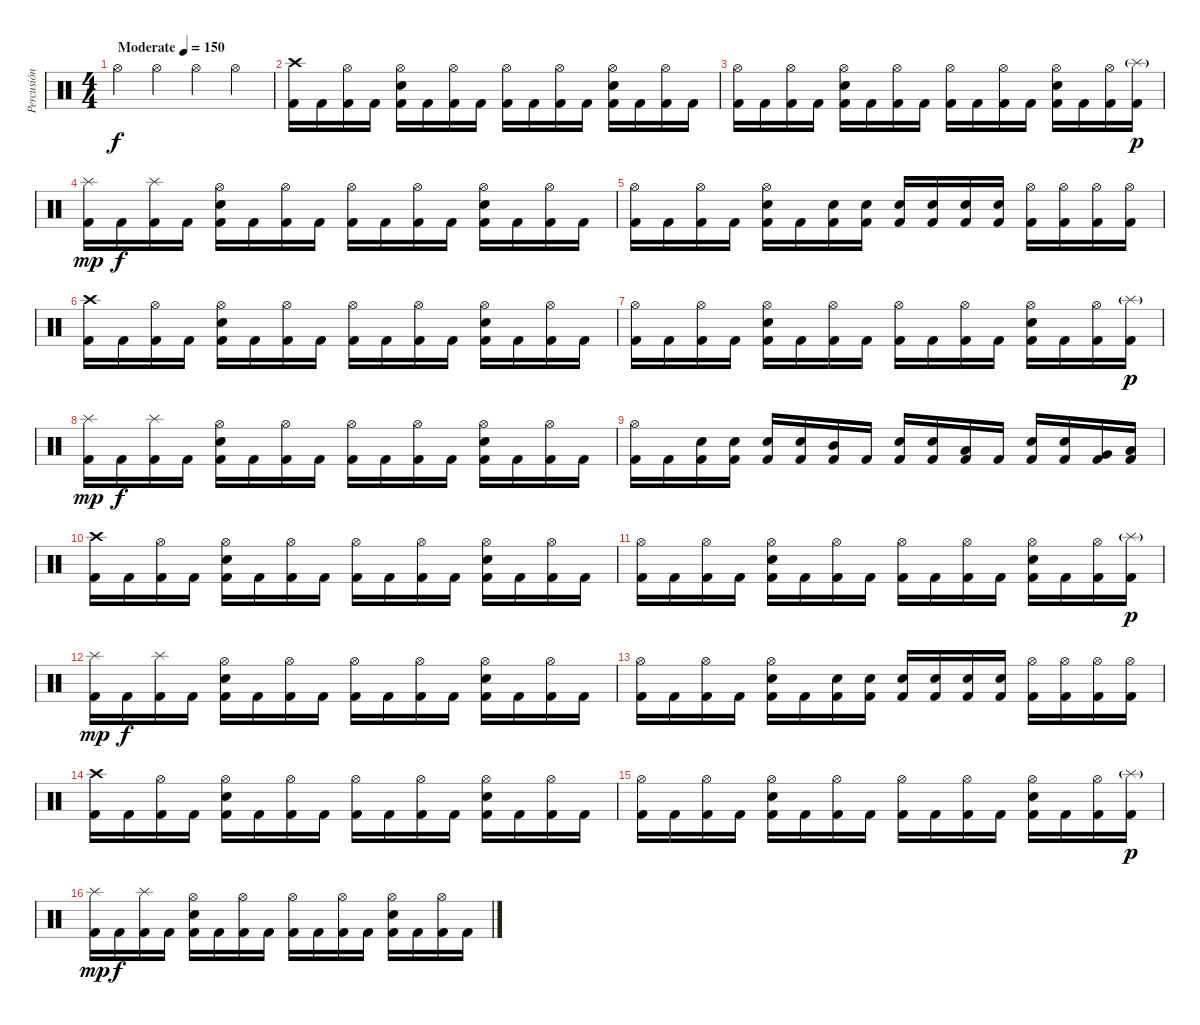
\track ("Percusión" "Percusión") {instrument percussion}
\staff {score}
\articulation defaults
\ts (4 4)
\tempo (150 "Moderate")
\clef neutral
\ks c "Hi-Hat (open)".4{dy f} "Hi-Hat (open)".4 "Hi-Hat (open)".4 "Hi-Hat (open)".4
|
("Crash high (hit)" "Kick (hit) 2").16 "Kick (hit) 2".16 ("Hi-Hat (open)" "Kick (hit) 2").16 "Kick (hit) 2".16 ("Hi-Hat (open)" "Snare (hit) 2" "Kick (hit) 2").16 "Kick (hit) 2".16 ("Hi-Hat (open)" "Kick (hit) 2").16 "Kick (hit) 2".16 ("Hi-Hat (open)" "Kick (hit) 2").16 "Kick (hit) 2".16 ("Hi-Hat (open)" "Kick (hit) 2").16 "Kick (hit) 2".16 ("Hi-Hat (open)" "Snare (hit) 2" "Kick (hit) 2").16 "Kick (hit) 2".16 ("Hi-Hat (open)" "Kick (hit) 2").16 "Kick (hit) 2".16 |
("Hi-Hat (open)" "Kick (hit) 2").16 "Kick (hit) 2".16 ("Hi-Hat (open)" "Kick (hit) 2").16 "Kick (hit) 2".16 ("Hi-Hat (open)" "Snare (hit) 2" "Kick (hit) 2").16 "Kick (hit) 2".16 ("Hi-Hat (open)" "Kick (hit) 2").16 "Kick (hit) 2".16 ("Hi-Hat (open)" "Kick (hit) 2").16 "Kick (hit) 2".16 ("Hi-Hat (open)" "Kick (hit) 2").16 "Kick (hit) 2".16 ("Hi-Hat (open)" "Snare (hit) 2" "Kick (hit) 2").16 "Kick (hit) 2".16 ("Hi-Hat (open)" "Kick (hit) 2").16 ("Splash (hit)"{g} "Kick (hit) 2").16{dy p} |
("Splash (hit)" "Kick (hit) 2").16{dy mp} "Kick (hit) 2".16{dy f} ("Splash (hit)" "Kick (hit) 2").16 "Kick (hit) 2".16 ("Hi-Hat (open)" "Snare (hit) 2" "Kick (hit) 2").16 "Kick (hit) 2".16 ("Hi-Hat (open)" "Kick (hit) 2").16 "Kick (hit) 2".16 ("Hi-Hat (open)" "Kick (hit) 2").16 "Kick (hit) 2".16 ("Hi-Hat (open)" "Kick (hit) 2").16 "Kick (hit) 2".16 ("Hi-Hat (open)" "Snare (hit) 2" "Kick (hit) 2").16 "Kick (hit) 2".16 ("Hi-Hat (open)" "Kick (hit) 2").16 "Kick (hit) 2".16 |
("Hi-Hat (open)" "Kick (hit) 2").16 "Kick (hit) 2".16 ("Hi-Hat (open)" "Kick (hit) 2").16 "Kick (hit) 2".16 ("Hi-Hat (open)" "Snare (hit) 2" "Kick (hit) 2").16 "Kick (hit) 2".16 ("Snare (hit) 2" "Kick (hit) 2").16 ("Snare (hit) 2" "Kick (hit) 2").16 ("Snare (hit) 2" "Kick (hit) 2").16 ("Snare (hit) 2" "Kick (hit) 2").16 ("Snare (hit) 2" "Kick (hit) 2").16 ("Snare (hit) 2" "Kick (hit) 2").16 ("Hi-Hat (open)" "Kick (hit) 2").16 ("Hi-Hat (open)" "Kick (hit) 2").16 ("Hi-Hat (open)" "Kick (hit) 2").16 ("Hi-Hat (open)" "Kick (hit) 2").16 |
("Crash high (hit)" "Kick (hit) 2").16 "Kick (hit) 2".16 ("Hi-Hat (open)" "Kick (hit) 2").16 "Kick (hit) 2".16 ("Hi-Hat (open)" "Snare (hit) 2" "Kick (hit) 2").16 "Kick (hit) 2".16 ("Hi-Hat (open)" "Kick (hit) 2").16 "Kick (hit) 2".16 ("Hi-Hat (open)" "Kick (hit) 2").16 "Kick (hit) 2".16 ("Hi-Hat (open)" "Kick (hit) 2").16 "Kick (hit) 2".16 ("Hi-Hat (open)" "Snare (hit) 2" "Kick (hit) 2").16 "Kick (hit) 2".16 ("Hi-Hat (open)" "Kick (hit) 2").16 "Kick (hit) 2".16 |
("Hi-Hat (open)" "Kick (hit) 2").16 "Kick (hit) 2".16 ("Hi-Hat (open)" "Kick (hit) 2").16 "Kick (hit) 2".16 ("Hi-Hat (open)" "Snare (hit) 2" "Kick (hit) 2").16 "Kick (hit) 2".16 ("Hi-Hat (open)" "Kick (hit) 2").16 "Kick (hit) 2".16 ("Hi-Hat (open)" "Kick (hit) 2").16 "Kick (hit) 2".16 ("Hi-Hat (open)" "Kick (hit) 2").16 "Kick (hit) 2".16 ("Hi-Hat (open)" "Snare (hit) 2" "Kick (hit) 2").16 "Kick (hit) 2".16 ("Hi-Hat (open)" "Kick (hit) 2").16 ("Splash (hit)"{g} "Kick (hit) 2").16{dy p} |
("Splash (hit)" "Kick (hit) 2").16{dy mp} "Kick (hit) 2".16{dy f} ("Splash (hit)" "Kick (hit) 2").16 "Kick (hit) 2".16 ("Hi-Hat (open)" "Snare (hit) 2" "Kick (hit) 2").16 "Kick (hit) 2".16 ("Hi-Hat (open)" "Kick (hit) 2").16 "Kick (hit) 2".16 ("Hi-Hat (open)" "Kick (hit) 2").16 "Kick (hit) 2".16 ("Hi-Hat (open)" "Kick (hit) 2").16 "Kick (hit) 2".16 ("Hi-Hat (open)" "Snare (hit) 2" "Kick (hit) 2").16 "Kick (hit) 2".16 ("Hi-Hat (open)" "Kick (hit) 2").16 "Kick (hit) 2".16 |
("Hi-Hat (open)" "Kick (hit) 2").16 "Kick (hit) 2".16 ("Snare (hit) 2" "Kick (hit) 2").16 ("Snare (hit) 2" "Kick (hit) 2").16 ("Snare (hit) 2" "Kick (hit) 2").16 ("Snare (hit) 2" "Kick (hit) 2").16 ("Mid Tom (hit)" "Kick (hit) 2").16 "Kick (hit) 2".16 ("Snare (hit) 2" "Kick (hit) 2").16 ("Snare (hit) 2" "Kick (hit) 2").16 ("Low Tom (hit)" "Kick (hit) 2").16 "Kick (hit) 2".16 ("Snare (hit) 2" "Kick (hit) 2").16 ("Snare (hit) 2" "Kick (hit) 2").16 ("Very Low Tom (hit)" "Kick (hit) 2").16 ("Low Floor Tom (hit)" "Kick (hit) 2").16 |
("Crash high (hit)" "Kick (hit) 2").16 "Kick (hit) 2".16 ("Hi-Hat (open)" "Kick (hit) 2").16 "Kick (hit) 2".16 ("Hi-Hat (open)" "Snare (hit) 2" "Kick (hit) 2").16 "Kick (hit) 2".16 ("Hi-Hat (open)" "Kick (hit) 2").16 "Kick (hit) 2".16 ("Hi-Hat (open)" "Kick (hit) 2").16 "Kick (hit) 2".16 ("Hi-Hat (open)" "Kick (hit) 2").16 "Kick (hit) 2".16 ("Hi-Hat (open)" "Snare (hit) 2" "Kick (hit) 2").16 "Kick (hit) 2".16 ("Hi-Hat (open)" "Kick (hit) 2").16 "Kick (hit) 2".16 |
("Hi-Hat (open)" "Kick (hit) 2").16 "Kick (hit) 2".16 ("Hi-Hat (open)" "Kick (hit) 2").16 "Kick (hit) 2".16 ("Hi-Hat (open)" "Snare (hit) 2" "Kick (hit) 2").16 "Kick (hit) 2".16 ("Hi-Hat (open)" "Kick (hit) 2").16 "Kick (hit) 2".16 ("Hi-Hat (open)" "Kick (hit) 2").16 "Kick (hit) 2".16 ("Hi-Hat (open)" "Kick (hit) 2").16 "Kick (hit) 2".16 ("Hi-Hat (open)" "Snare (hit) 2" "Kick (hit) 2").16 "Kick (hit) 2".16 ("Hi-Hat (open)" "Kick (hit) 2").16 ("Splash (hit)"{g} "Kick (hit) 2").16{dy p} |
("Splash (hit)" "Kick (hit) 2").16{dy mp} "Kick (hit) 2".16{dy f} ("Splash (hit)" "Kick (hit) 2").16 "Kick (hit) 2".16 ("Hi-Hat (open)" "Snare (hit) 2" "Kick (hit) 2").16 "Kick (hit) 2".16 ("Hi-Hat (open)" "Kick (hit) 2").16 "Kick (hit) 2".16 ("Hi-Hat (open)" "Kick (hit) 2").16 "Kick (hit) 2".16 ("Hi-Hat (open)" "Kick (hit) 2").16 "Kick (hit) 2".16 ("Hi-Hat (open)" "Snare (hit) 2" "Kick (hit) 2").16 "Kick (hit) 2".16 ("Hi-Hat (open)" "Kick (hit) 2").16 "Kick (hit) 2".16 |
("Hi-Hat (open)" "Kick (hit) 2").16 "Kick (hit) 2".16 ("Hi-Hat (open)" "Kick (hit) 2").16 "Kick (hit) 2".16 ("Hi-Hat (open)" "Snare (hit) 2" "Kick (hit) 2").16 "Kick (hit) 2".16 ("Snare (hit) 2" "Kick (hit) 2").16 ("Snare (hit) 2" "Kick (hit) 2").16 ("Snare (hit) 2" "Kick (hit) 2").16 ("Snare (hit) 2" "Kick (hit) 2").16 ("Snare (hit) 2" "Kick (hit) 2").16 ("Snare (hit) 2" "Kick (hit) 2").16 ("Hi-Hat (open)" "Kick (hit) 2").16 ("Hi-Hat (open)" "Kick (hit) 2").16 ("Hi-Hat (open)" "Kick (hit) 2").16 ("Hi-Hat (open)" "Kick (hit) 2").16 |
("Crash high (hit)" "Kick (hit) 2").16 "Kick (hit) 2".16 ("Hi-Hat (open)" "Kick (hit) 2").16 "Kick (hit) 2".16 ("Hi-Hat (open)" "Snare (hit) 2" "Kick (hit) 2").16 "Kick (hit) 2".16 ("Hi-Hat (open)" "Kick (hit) 2").16 "Kick (hit) 2".16 ("Hi-Hat (open)" "Kick (hit) 2").16 "Kick (hit) 2".16 ("Hi-Hat (open)" "Kick (hit) 2").16 "Kick (hit) 2".16 ("Hi-Hat (open)" "Snare (hit) 2" "Kick (hit) 2").16 "Kick (hit) 2".16 ("Hi-Hat (open)" "Kick (hit) 2").16 "Kick (hit) 2".16 |
("Hi-Hat (open)" "Kick (hit) 2").16 "Kick (hit) 2".16 ("Hi-Hat (open)" "Kick (hit) 2").16 "Kick (hit) 2".16 ("Hi-Hat (open)" "Snare (hit) 2" "Kick (hit) 2").16 "Kick (hit) 2".16 ("Hi-Hat (open)" "Kick (hit) 2").16 "Kick (hit) 2".16 ("Hi-Hat (open)" "Kick (hit) 2").16 "Kick (hit) 2".16 ("Hi-Hat (open)" "Kick (hit) 2").16 "Kick (hit) 2".16 ("Hi-Hat (open)" "Snare (hit) 2" "Kick (hit) 2").16 "Kick (hit) 2".16 ("Hi-Hat (open)" "Kick (hit) 2").16 ("Splash (hit)"{g} "Kick (hit) 2").16{dy p} |
("Splash (hit)" "Kick (hit) 2").16{dy mp} "Kick (hit) 2".16{dy f} ("Splash (hit)" "Kick (hit) 2").16 "Kick (hit) 2".16 ("Hi-Hat (open)" "Snare (hit) 2" "Kick (hit) 2").16 "Kick (hit) 2".16 ("Hi-Hat (open)" "Kick (hit) 2").16 "Kick (hit) 2".16 ("Hi-Hat (open)" "Kick (hit) 2").16 "Kick (hit) 2".16 ("Hi-Hat (open)" "Kick (hit) 2").16 "Kick (hit) 2".16 ("Hi-Hat (open)" "Snare (hit) 2" "Kick (hit) 2").16 "Kick (hit) 2".16 ("Hi-Hat (open)" "Kick (hit) 2").16 "Kick (hit) 2".16
